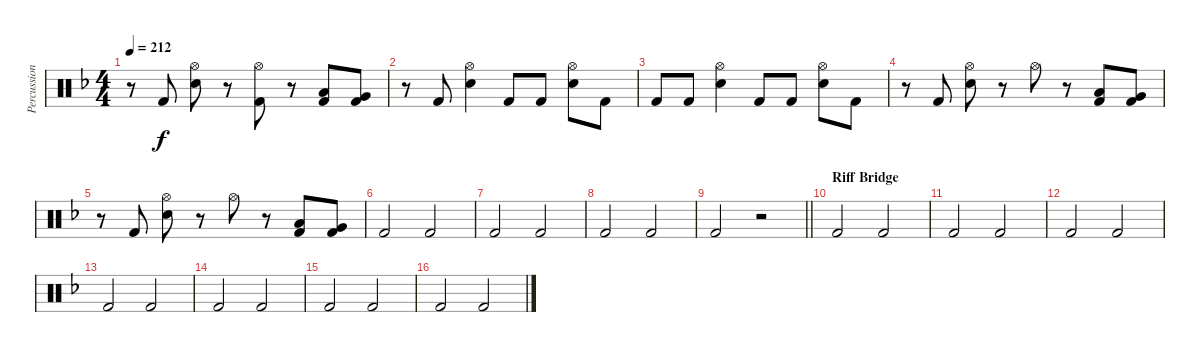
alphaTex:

\track ("Percussion" "Percussion") {instrument percussion}
\staff {score}
\articulation defaults
\ts (4 4)
\tempo 212
\clef neutral
\ks dminor
r.8{dy f} "Kick (hit) 2".8 ("Hi-Hat (open)" "Electric Snare (hit)").8 r.8 ("Hi-Hat (open)" "Kick (hit) 2").8 r.8 ("Low Tom (hit)" "Kick (hit) 2").8 ("Very Low Tom (hit)" "Kick (hit) 2").8 |
r.8 "Kick (hit) 2".8 ("Hi-Hat (open)" "Electric Snare (hit)").4 "Kick (hit) 2".8 "Kick (hit) 2".8 ("Hi-Hat (open)" "Electric Snare (hit)").8 "Kick (hit) 2".8 |
"Kick (hit) 2".8 "Kick (hit) 2".8 ("Hi-Hat (open)" "Electric Snare (hit)").4 "Kick (hit) 2".8 "Kick (hit) 2".8 ("Hi-Hat (open)" "Electric Snare (hit)").8 "Kick (hit) 2".8 |
r.8 "Kick (hit) 2".8 ("Hi-Hat (open)" "Electric Snare (hit)").8 r.8 "Hi-Hat (open)".8 r.8 ("Low Tom (hit)" "Kick (hit) 2").8 ("Very Low Tom (hit)" "Kick (hit) 2").8 |
r.8 "Kick (hit) 2".8 ("Hi-Hat (open)" "Electric Snare (hit)").8 r.8 "Hi-Hat (open)".8 r.8 ("Low Tom (hit)" "Kick (hit) 2").8 ("Very Low Tom (hit)" "Kick (hit) 2").8 |
"Kick (hit) 2".2 "Kick (hit) 2".2 |
"Kick (hit) 2".2 "Kick (hit) 2".2 |
"Kick (hit) 2".2 "Kick (hit) 2".2 |
\barLineRight lightlight "Kick (hit) 2".2
r.2 |
\section ("" "Riff Bridge")
"Kick (hit) 2".2 "Kick (hit) 2".2 |
"Kick (hit) 2".2 "Kick (hit) 2".2 |
"Kick (hit) 2".2 "Kick (hit) 2".2 |
"Kick (hit) 2".2 "Kick (hit) 2".2 |
"Kick (hit) 2".2 "Kick (hit) 2".2 |
"Kick (hit) 2".2 "Kick (hit) 2".2 |
"Kick (hit) 2".2 "Kick (hit) 2".2
